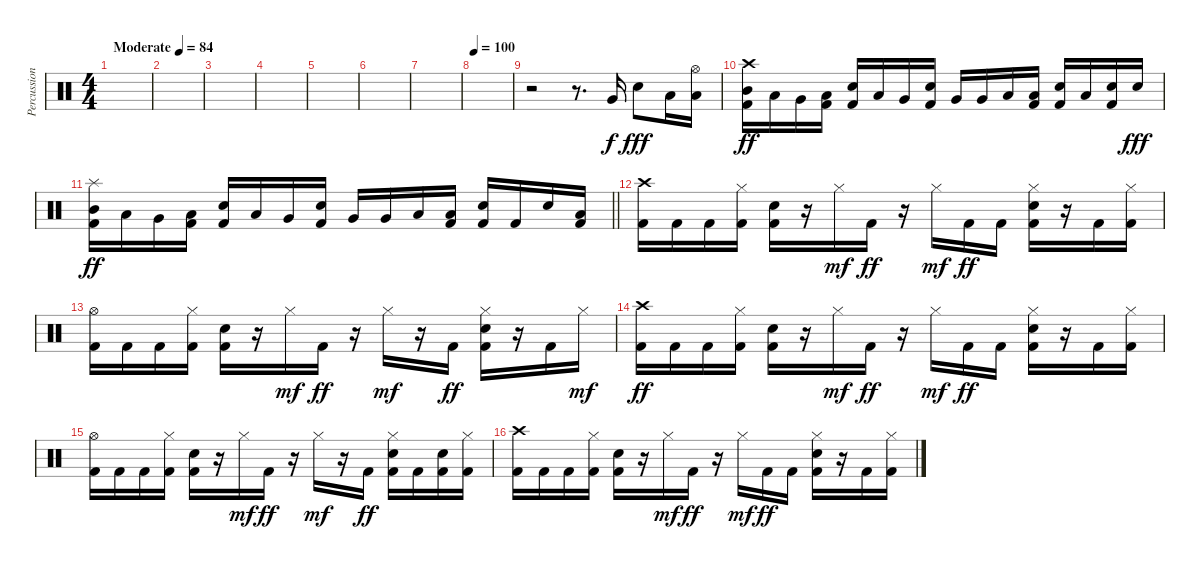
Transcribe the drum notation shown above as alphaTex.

\track ("Percussion" "Percussion") {instrument percussion}
\staff {score}
\articulation defaults
\ts (4 4)
\tempo (84 "Moderate")
\clef neutral
\ks c
|
|
|
|
|
|
|
\tempo 100
|
r.2 r.8{d} "Very Low Tom (hit)".16 "Snare (hit) 2".8{dy fff} "Low Floor Tom (hit)".16 ("Hi-Hat (open)" "Low Floor Tom (hit)").16 |
("Crash high (hit)" "Mid Tom (hit)" "Kick (hit) 2").16{dy ff} "Low Tom (hit)".16 "Very Low Tom (hit)".16 ("Low Floor Tom (hit)" "Kick (hit) 2").16 ("Snare (hit) 2" "Kick (hit) 2").16 "Low Floor Tom (hit)".16 "Very Low Tom (hit)".16 ("Snare (hit) 2" "Kick (hit) 2").16 "Very Low Tom (hit)".16 "Very Low Tom (hit)".16 "Low Floor Tom (hit)".16 ("Low Floor Tom (hit)" "Kick (hit) 2").16 ("Snare (hit) 2" "Kick (hit) 2").16 "Low Floor Tom (hit)".16 ("Snare (hit) 2" "Kick (hit) 2").16 "Snare (hit) 2".16{dy fff} |
\barLineRight lightlight
("Splash (hit)" "Mid Tom (hit)" "Kick (hit) 2").16{dy ff} "Low Tom (hit)".16 "Very Low Tom (hit)".16 ("Low Floor Tom (hit)" "Kick (hit) 2").16 ("Snare (hit) 2" "Kick (hit) 2").16 "Low Floor Tom (hit)".16 "Very Low Tom (hit)".16 ("Snare (hit) 2" "Kick (hit) 2").16 "Very Low Tom (hit)".16 "Very Low Tom (hit)".16 "Low Floor Tom (hit)".16 ("Low Floor Tom (hit)" "Kick (hit) 2").16 ("Snare (hit) 2" "Kick (hit) 2").16 "Kick (hit) 2".16 "Snare (hit) 2".16 ("Low Floor Tom (hit)" "Kick (hit) 2").16 |
("Crash high (hit)" "Kick (hit) 2").16 "Kick (hit) 2".16 "Kick (hit) 2".16 ("Hi-Hat (closed)" "Kick (hit) 2").16 ("Snare (hit) 2" "Kick (hit) 2").16 r.16 "Hi-Hat (closed)".16{dy mf} "Kick (hit) 2".16{dy ff} r.16 "Hi-Hat (closed)".16{dy mf} "Kick (hit) 2".16{dy ff} "Kick (hit) 2".16 ("Hi-Hat (closed)" "Snare (hit) 2" "Kick (hit) 2").16 r.16 "Kick (hit) 2".16 ("Hi-Hat (closed)" "Kick (hit) 2").16 |
("Hi-Hat (open)" "Kick (hit) 2").16 "Kick (hit) 2".16 "Kick (hit) 2".16 ("Hi-Hat (closed)" "Kick (hit) 2").16 ("Snare (hit) 2" "Kick (hit) 2").16 r.16 "Hi-Hat (closed)".16{dy mf} "Kick (hit) 2".16{dy ff} r.16 "Hi-Hat (closed)".16{dy mf} r.16 "Kick (hit) 2".16{dy ff} ("Hi-Hat (closed)" "Snare (hit) 2" "Kick (hit) 2").16 r.16 "Kick (hit) 2".16 "Hi-Hat (closed)".16{dy mf} |
("Crash high (hit)" "Kick (hit) 2").16{dy ff} "Kick (hit) 2".16 "Kick (hit) 2".16 ("Hi-Hat (closed)" "Kick (hit) 2").16 ("Snare (hit) 2" "Kick (hit) 2").16 r.16 "Hi-Hat (closed)".16{dy mf} "Kick (hit) 2".16{dy ff} r.16 "Hi-Hat (closed)".16{dy mf} "Kick (hit) 2".16{dy ff} "Kick (hit) 2".16 ("Hi-Hat (closed)" "Snare (hit) 2" "Kick (hit) 2").16 r.16 "Kick (hit) 2".16 ("Hi-Hat (closed)" "Kick (hit) 2").16 |
("Hi-Hat (open)" "Kick (hit) 2").16 "Kick (hit) 2".16 "Kick (hit) 2".16 ("Hi-Hat (closed)" "Kick (hit) 2").16 ("Snare (hit) 2" "Kick (hit) 2").16 r.16 "Hi-Hat (closed)".16{dy mf} "Kick (hit) 2".16{dy ff} r.16 "Hi-Hat (closed)".16{dy mf} r.16 "Kick (hit) 2".16{dy ff} ("Hi-Hat (closed)" "Snare (hit) 2" "Kick (hit) 2").16 "Kick (hit) 2".16 ("Snare (hit) 2" "Kick (hit) 2").16 ("Hi-Hat (closed)" "Kick (hit) 2").16 |
("Crash high (hit)" "Kick (hit) 2").16 "Kick (hit) 2".16 "Kick (hit) 2".16 ("Hi-Hat (closed)" "Kick (hit) 2").16 ("Snare (hit) 2" "Kick (hit) 2").16 r.16 "Hi-Hat (closed)".16{dy mf} "Kick (hit) 2".16{dy ff} r.16 "Hi-Hat (closed)".16{dy mf} "Kick (hit) 2".16{dy ff} "Kick (hit) 2".16 ("Hi-Hat (closed)" "Snare (hit) 2" "Kick (hit) 2").16 r.16 "Kick (hit) 2".16 ("Hi-Hat (closed)" "Kick (hit) 2").16
